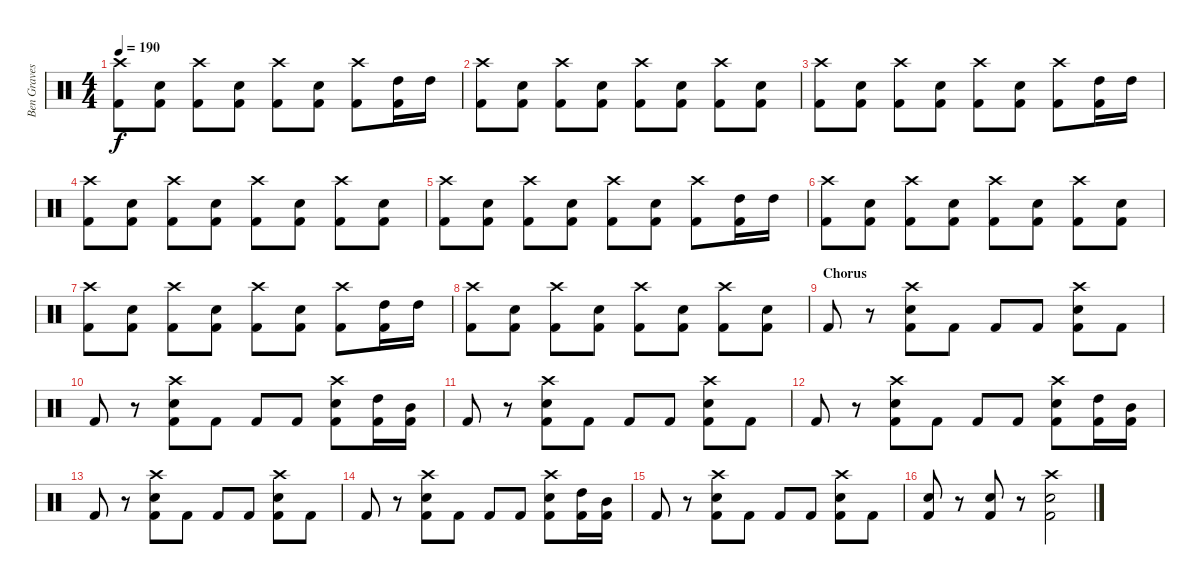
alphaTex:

\track ("Ben Graves" "Ben Graves") {instrument percussion}
\staff {score}
\articulation defaults
\ts (4 4)
\tempo 190
\clef neutral
\ks c
("Crash high (hit)" "Kick (hit) 2").8{dy f} ("Electric Snare (hit)" "Kick (hit) 2").8 ("Crash high (hit)" "Kick (hit) 2").8 ("Electric Snare (hit)" "Kick (hit) 2").8 ("Crash high (hit)" "Kick (hit) 2").8 ("Electric Snare (hit)" "Kick (hit) 2").8 ("Crash high (hit)" "Kick (hit) 2").8 ("High Tom (hit)" "Kick (hit) 2").16 "High Tom (hit)".16 |
("Crash high (hit)" "Kick (hit) 2").8 ("Electric Snare (hit)" "Kick (hit) 2").8 ("Crash high (hit)" "Kick (hit) 2").8 ("Electric Snare (hit)" "Kick (hit) 2").8 ("Crash high (hit)" "Kick (hit) 2").8 ("Electric Snare (hit)" "Kick (hit) 2").8 ("Crash high (hit)" "Kick (hit) 2").8 ("Electric Snare (hit)" "Kick (hit) 2").8 |
("Crash high (hit)" "Kick (hit) 2").8 ("Electric Snare (hit)" "Kick (hit) 2").8 ("Crash high (hit)" "Kick (hit) 2").8 ("Electric Snare (hit)" "Kick (hit) 2").8 ("Crash high (hit)" "Kick (hit) 2").8 ("Electric Snare (hit)" "Kick (hit) 2").8 ("Crash high (hit)" "Kick (hit) 2").8 ("High Tom (hit)" "Kick (hit) 2").16 "High Tom (hit)".16 |
("Crash high (hit)" "Kick (hit) 2").8 ("Electric Snare (hit)" "Kick (hit) 2").8 ("Crash high (hit)" "Kick (hit) 2").8 ("Electric Snare (hit)" "Kick (hit) 2").8 ("Crash high (hit)" "Kick (hit) 2").8 ("Electric Snare (hit)" "Kick (hit) 2").8 ("Crash high (hit)" "Kick (hit) 2").8 ("Electric Snare (hit)" "Kick (hit) 2").8 |
("Crash high (hit)" "Kick (hit) 2").8 ("Electric Snare (hit)" "Kick (hit) 2").8 ("Crash high (hit)" "Kick (hit) 2").8 ("Electric Snare (hit)" "Kick (hit) 2").8 ("Crash high (hit)" "Kick (hit) 2").8 ("Electric Snare (hit)" "Kick (hit) 2").8 ("Crash high (hit)" "Kick (hit) 2").8 ("High Tom (hit)" "Kick (hit) 2").16 "High Tom (hit)".16 |
("Crash high (hit)" "Kick (hit) 2").8 ("Electric Snare (hit)" "Kick (hit) 2").8 ("Crash high (hit)" "Kick (hit) 2").8 ("Electric Snare (hit)" "Kick (hit) 2").8 ("Crash high (hit)" "Kick (hit) 2").8 ("Electric Snare (hit)" "Kick (hit) 2").8 ("Crash high (hit)" "Kick (hit) 2").8 ("Electric Snare (hit)" "Kick (hit) 2").8 |
("Crash high (hit)" "Kick (hit) 2").8 ("Electric Snare (hit)" "Kick (hit) 2").8 ("Crash high (hit)" "Kick (hit) 2").8 ("Electric Snare (hit)" "Kick (hit) 2").8 ("Crash high (hit)" "Kick (hit) 2").8 ("Electric Snare (hit)" "Kick (hit) 2").8 ("Crash high (hit)" "Kick (hit) 2").8 ("High Tom (hit)" "Kick (hit) 2").16 "High Tom (hit)".16 |
("Crash high (hit)" "Kick (hit) 2").8 ("Electric Snare (hit)" "Kick (hit) 2").8 ("Crash high (hit)" "Kick (hit) 2").8 ("Electric Snare (hit)" "Kick (hit) 2").8 ("Crash high (hit)" "Kick (hit) 2").8 ("Electric Snare (hit)" "Kick (hit) 2").8 ("Crash high (hit)" "Kick (hit) 2").8 ("Electric Snare (hit)" "Kick (hit) 2").8 |
\section ("" "Chorus")
"Kick (hit) 2".8 r.8 ("Crash high (hit)" "Electric Snare (hit)" "Kick (hit) 2").8 "Kick (hit) 2".8 "Kick (hit) 2".8 "Kick (hit) 2".8 ("Crash high (hit)" "Electric Snare (hit)" "Kick (hit) 2").8 "Kick (hit) 2".8 |
"Kick (hit) 2".8 r.8 ("Crash high (hit)" "Electric Snare (hit)" "Kick (hit) 2").8 "Kick (hit) 2".8 "Kick (hit) 2".8 "Kick (hit) 2".8 ("Crash high (hit)" "Electric Snare (hit)" "Kick (hit) 2").8 ("High Tom (hit)" "Kick (hit) 2").16 ("Mid Tom (hit)" "Kick (hit) 2").16 |
"Kick (hit) 2".8 r.8 ("Crash high (hit)" "Electric Snare (hit)" "Kick (hit) 2").8 "Kick (hit) 2".8 "Kick (hit) 2".8 "Kick (hit) 2".8 ("Crash high (hit)" "Electric Snare (hit)" "Kick (hit) 2").8 "Kick (hit) 2".8 |
"Kick (hit) 2".8 r.8 ("Crash high (hit)" "Electric Snare (hit)" "Kick (hit) 2").8 "Kick (hit) 2".8 "Kick (hit) 2".8 "Kick (hit) 2".8 ("Crash high (hit)" "Electric Snare (hit)" "Kick (hit) 2").8 ("High Tom (hit)" "Kick (hit) 2").16 ("Mid Tom (hit)" "Kick (hit) 2").16 |
"Kick (hit) 2".8 r.8 ("Crash high (hit)" "Electric Snare (hit)" "Kick (hit) 2").8 "Kick (hit) 2".8 "Kick (hit) 2".8 "Kick (hit) 2".8 ("Crash high (hit)" "Electric Snare (hit)" "Kick (hit) 2").8 "Kick (hit) 2".8 |
"Kick (hit) 2".8 r.8 ("Crash high (hit)" "Electric Snare (hit)" "Kick (hit) 2").8 "Kick (hit) 2".8 "Kick (hit) 2".8 "Kick (hit) 2".8 ("Crash high (hit)" "Electric Snare (hit)" "Kick (hit) 2").8 ("High Tom (hit)" "Kick (hit) 2").16 ("Mid Tom (hit)" "Kick (hit) 2").16 |
"Kick (hit) 2".8 r.8 ("Crash high (hit)" "Electric Snare (hit)" "Kick (hit) 2").8 "Kick (hit) 2".8 "Kick (hit) 2".8 "Kick (hit) 2".8 ("Crash high (hit)" "Electric Snare (hit)" "Kick (hit) 2").8 "Kick (hit) 2".8 |
("Electric Snare (hit)" "Kick (hit) 2").8 r.8 ("Electric Snare (hit)" "Kick (hit) 2").8 r.8 ("Crash high (hit)" "Electric Snare (hit)" "Kick (hit) 2").2
